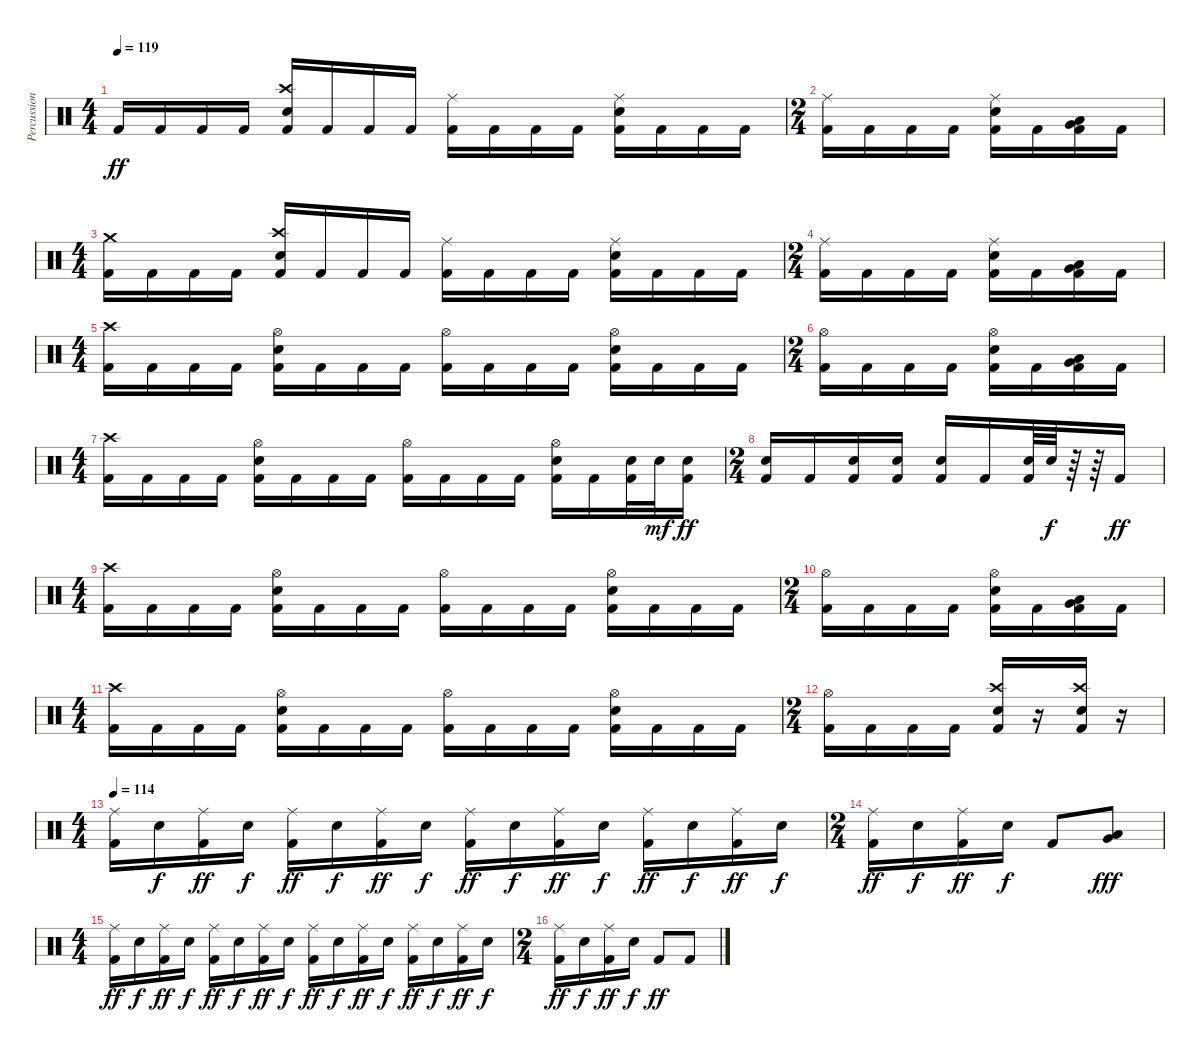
\track ("Percussion" "Percussion") {instrument percussion}
\staff {score}
\articulation defaults
\ts (4 4)
\tempo 119
\clef neutral
\ks c "Kick (hit) 2".16{dy ff} "Kick (hit) 2".16 "Kick (hit) 2".16 "Kick (hit) 2".16
("Crash high (hit)" "Electric Snare (hit)" "Kick (hit) 2").16 "Kick (hit) 2".16 "Kick (hit) 2".16 "Kick (hit) 2".16 ("Ride (middle)" "Kick (hit) 2").16 "Kick (hit) 2".16 "Kick (hit) 2".16 "Kick (hit) 2".16 ("Ride (middle)" "Electric Snare (hit)" "Kick (hit) 2").16 "Kick (hit) 2".16 "Kick (hit) 2".16 "Kick (hit) 2".16 |
\ts (2 4)
("Ride (middle)" "Kick (hit) 2").16 "Kick (hit) 2".16 "Kick (hit) 2".16 "Kick (hit) 2".16 ("Ride (middle)" "Electric Snare (hit)" "Kick (hit) 2").16 "Kick (hit) 2".16 ("Low Tom (hit)" "Very Low Tom (hit)" "Kick (hit) 2").16 "Kick (hit) 2".16 |
\ts (4 4)
("Crash medium (hit)" "Kick (hit) 2").16 "Kick (hit) 2".16 "Kick (hit) 2".16 "Kick (hit) 2".16 ("Crash high (hit)" "Electric Snare (hit)" "Kick (hit) 2").16 "Kick (hit) 2".16 "Kick (hit) 2".16 "Kick (hit) 2".16 ("Ride (middle)" "Kick (hit) 2").16 "Kick (hit) 2".16 "Kick (hit) 2".16 "Kick (hit) 2".16 ("Ride (middle)" "Electric Snare (hit)" "Kick (hit) 2").16 "Kick (hit) 2".16 "Kick (hit) 2".16 "Kick (hit) 2".16 |
\ts (2 4)
("Ride (middle)" "Kick (hit) 2").16 "Kick (hit) 2".16 "Kick (hit) 2".16 "Kick (hit) 2".16 ("Ride (middle)" "Electric Snare (hit)" "Kick (hit) 2").16 "Kick (hit) 2".16 ("Low Tom (hit)" "Very Low Tom (hit)" "Kick (hit) 2").16 "Kick (hit) 2".16 |
\ts (4 4)
("Crash high (hit)" "Kick (hit) 2").16 "Kick (hit) 2".16 "Kick (hit) 2".16 "Kick (hit) 2".16 ("Hi-Hat (open)" "Electric Snare (hit)" "Kick (hit) 2").16 "Kick (hit) 2".16 "Kick (hit) 2".16 "Kick (hit) 2".16 ("Hi-Hat (open)" "Kick (hit) 2").16 "Kick (hit) 2".16 "Kick (hit) 2".16 "Kick (hit) 2".16 ("Hi-Hat (open)" "Electric Snare (hit)" "Kick (hit) 2").16 "Kick (hit) 2".16 "Kick (hit) 2".16 "Kick (hit) 2".16 |
\ts (2 4)
("Hi-Hat (open)" "Kick (hit) 2").16 "Kick (hit) 2".16 "Kick (hit) 2".16 "Kick (hit) 2".16 ("Hi-Hat (open)" "Electric Snare (hit)" "Kick (hit) 2").16 "Kick (hit) 2".16 ("Low Tom (hit)" "Very Low Tom (hit)" "Kick (hit) 2").16 "Kick (hit) 2".16 |
\ts (4 4)
("Crash high (hit)" "Kick (hit) 2").16 "Kick (hit) 2".16 "Kick (hit) 2".16 "Kick (hit) 2".16 ("Hi-Hat (open)" "Electric Snare (hit)" "Kick (hit) 2").16 "Kick (hit) 2".16 "Kick (hit) 2".16 "Kick (hit) 2".16 ("Hi-Hat (open)" "Kick (hit) 2").16 "Kick (hit) 2".16 "Kick (hit) 2".16 "Kick (hit) 2".16 ("Hi-Hat (open)" "Electric Snare (hit)" "Kick (hit) 2").16 "Kick (hit) 2".16 ("Electric Snare (hit)" "Kick (hit) 2").32 "Electric Snare (hit)".32{dy mf} ("Electric Snare (hit)" "Kick (hit) 2").16{dy ff} |
\ts (2 4)
("Electric Snare (hit)" "Kick (hit) 2").16 "Kick (hit) 2".16 ("Electric Snare (hit)" "Kick (hit) 2").16 ("Electric Snare (hit)" "Kick (hit) 2").16 ("Electric Snare (hit)" "Kick (hit) 2").16 "Kick (hit) 2".16 ("Electric Snare (hit)" "Kick (hit) 2").64 "Electric Snare (hit)".64{dy f} r.64 r.64 "Kick (hit) 2".16{dy ff} |
\ts (4 4)
("Crash high (hit)" "Kick (hit) 2").16 "Kick (hit) 2".16 "Kick (hit) 2".16 "Kick (hit) 2".16 ("Hi-Hat (open)" "Electric Snare (hit)" "Kick (hit) 2").16 "Kick (hit) 2".16 "Kick (hit) 2".16 "Kick (hit) 2".16 ("Hi-Hat (open)" "Kick (hit) 2").16 "Kick (hit) 2".16 "Kick (hit) 2".16 "Kick (hit) 2".16 ("Hi-Hat (open)" "Electric Snare (hit)" "Kick (hit) 2").16 "Kick (hit) 2".16 "Kick (hit) 2".16 "Kick (hit) 2".16 |
\ts (2 4)
("Hi-Hat (open)" "Kick (hit) 2").16 "Kick (hit) 2".16 "Kick (hit) 2".16 "Kick (hit) 2".16 ("Hi-Hat (open)" "Electric Snare (hit)" "Kick (hit) 2").16 "Kick (hit) 2".16 ("Low Tom (hit)" "Very Low Tom (hit)" "Kick (hit) 2").16 "Kick (hit) 2".16 |
\ts (4 4)
("Crash high (hit)" "Kick (hit) 2").16 "Kick (hit) 2".16 "Kick (hit) 2".16 "Kick (hit) 2".16 ("Hi-Hat (open)" "Electric Snare (hit)" "Kick (hit) 2").16 "Kick (hit) 2".16 "Kick (hit) 2".16 "Kick (hit) 2".16 ("Hi-Hat (open)" "Kick (hit) 2").16 "Kick (hit) 2".16 "Kick (hit) 2".16 "Kick (hit) 2".16 ("Hi-Hat (open)" "Electric Snare (hit)" "Kick (hit) 2").16 "Kick (hit) 2".16 "Kick (hit) 2".16 "Kick (hit) 2".16 |
\ts (2 4)
("Hi-Hat (open)" "Kick (hit) 2").16 "Kick (hit) 2".16 "Kick (hit) 2".16 "Kick (hit) 2".16 ("Crash high (hit)" "Electric Snare (hit)" "Kick (hit) 2").16 r.16 ("Crash high (hit)" "Electric Snare (hit)" "Kick (hit) 2").16 r.16 |
\ts (4 4)
\tempo 114
("Ride (middle)" "Kick (hit) 2").16 "Electric Snare (hit)".16{dy f} ("Ride (middle)" "Kick (hit) 2").16{dy ff} "Electric Snare (hit)".16{dy f} ("Ride (middle)" "Kick (hit) 2").16{dy ff} "Electric Snare (hit)".16{dy f} ("Ride (middle)" "Kick (hit) 2").16{dy ff} "Electric Snare (hit)".16{dy f} ("Ride (middle)" "Kick (hit) 2").16{dy ff} "Electric Snare (hit)".16{dy f} ("Ride (middle)" "Kick (hit) 2").16{dy ff} "Electric Snare (hit)".16{dy f} ("Ride (middle)" "Kick (hit) 2").16{dy ff} "Electric Snare (hit)".16{dy f} ("Ride (middle)" "Kick (hit) 2").16{dy ff} "Electric Snare (hit)".16{dy f} |
\ts (2 4)
("Ride (middle)" "Kick (hit) 2").16{dy ff} "Electric Snare (hit)".16{dy f} ("Ride (middle)" "Kick (hit) 2").16{dy ff} "Electric Snare (hit)".16{dy f} "Kick (hit) 2".8 ("Low Tom (hit)" "Very Low Tom (hit)").8{dy fff} |
\ts (4 4)
("Ride (middle)" "Kick (hit) 2").16{dy ff} "Electric Snare (hit)".16{dy f} ("Ride (middle)" "Kick (hit) 2").16{dy ff} "Electric Snare (hit)".16{dy f} ("Ride (middle)" "Kick (hit) 2").16{dy ff} "Electric Snare (hit)".16{dy f} ("Ride (middle)" "Kick (hit) 2").16{dy ff} "Electric Snare (hit)".16{dy f} ("Ride (middle)" "Kick (hit) 2").16{dy ff} "Electric Snare (hit)".16{dy f} ("Ride (middle)" "Kick (hit) 2").16{dy ff} "Electric Snare (hit)".16{dy f} ("Ride (middle)" "Kick (hit) 2").16{dy ff} "Electric Snare (hit)".16{dy f} ("Ride (middle)" "Kick (hit) 2").16{dy ff} "Electric Snare (hit)".16{dy f} |
\ts (2 4)
("Ride (middle)" "Kick (hit) 2").16{dy ff} "Electric Snare (hit)".16{dy f} ("Ride (middle)" "Kick (hit) 2").16{dy ff} "Electric Snare (hit)".16{dy f} "Kick (hit) 2".8{dy ff} "Kick (hit) 2".8
